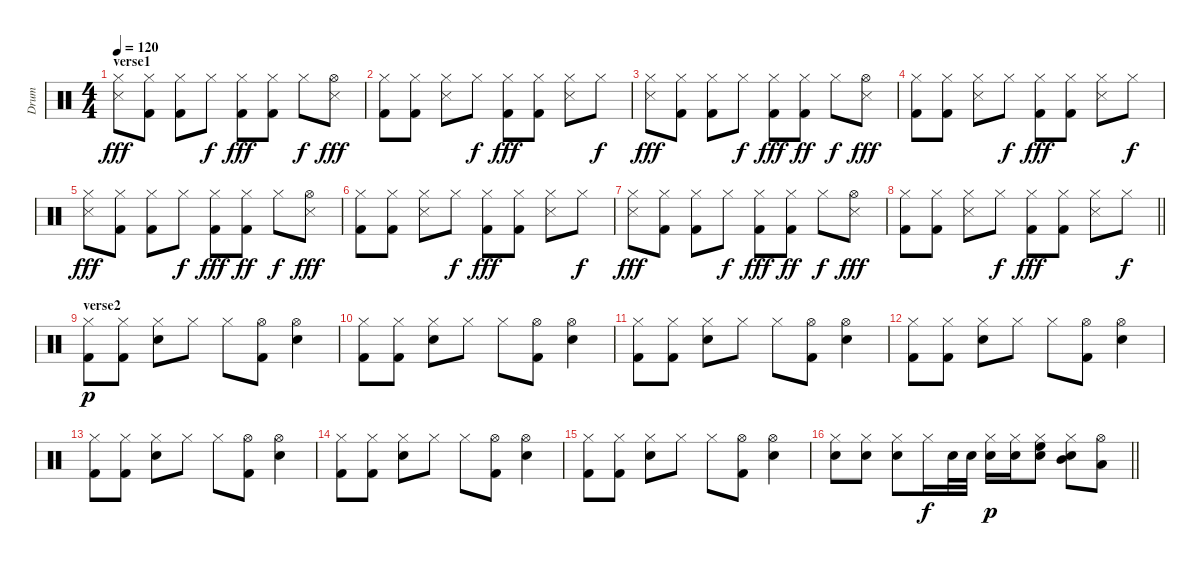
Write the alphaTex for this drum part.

\track ("Drum" "Drum") {instrument percussion}
\staff {score}
\articulation defaults
\ts (4 4)
\section ("" "verse1")
\tempo 120
\clef neutral
\ks c
("Snare (side stick) 3" "Hi-Hat (closed)").8{dy fff} ("Kick (hit) 2" "Hi-Hat (closed)").8 ("Kick (hit) 2" "Hi-Hat (closed)").8 "Hi-Hat (closed)".8{dy f} ("Hi-Hat (closed)" "Kick (hit) 2").8{dy fff} ("Kick (hit) 2" "Hi-Hat (closed)").8 "Hi-Hat (closed)".8{dy f} ("Hi-Hat (open)" "Snare (side stick) 3").8{dy fff} |
("Kick (hit) 2" "Hi-Hat (closed)").8 ("Kick (hit) 2" "Hi-Hat (closed)").8 ("Snare (side stick) 3" "Hi-Hat (closed)").8 "Hi-Hat (closed)".8{dy f} ("Kick (hit) 2" "Hi-Hat (closed)").8{dy fff} ("Kick (hit) 2" "Hi-Hat (closed)").8 ("Snare (side stick) 3" "Hi-Hat (closed)").8 "Hi-Hat (closed)".8{dy f} |
("Snare (side stick) 3" "Hi-Hat (closed)").8{dy fff} ("Kick (hit) 2" "Hi-Hat (closed)").8 ("Kick (hit) 2" "Hi-Hat (closed)").8 "Hi-Hat (closed)".8{dy f} ("Hi-Hat (closed)" "Kick (hit) 2").8{dy fff} ("Kick (hit) 2" "Hi-Hat (closed)").8{dy ff} "Hi-Hat (closed)".8{dy f} ("Snare (side stick) 3" "Hi-Hat (open)").8{dy fff} |
("Kick (hit) 2" "Hi-Hat (closed)").8 ("Kick (hit) 2" "Hi-Hat (closed)").8 ("Snare (side stick) 3" "Hi-Hat (closed)").8 "Hi-Hat (closed)".8{dy f} ("Kick (hit) 2" "Hi-Hat (closed)").8{dy fff} ("Kick (hit) 2" "Hi-Hat (closed)").8 ("Snare (side stick) 3" "Hi-Hat (closed)").8 "Hi-Hat (closed)".8{dy f} |
("Snare (side stick) 3" "Hi-Hat (closed)").8{dy fff} ("Kick (hit) 2" "Hi-Hat (closed)").8 ("Kick (hit) 2" "Hi-Hat (closed)").8 "Hi-Hat (closed)".8{dy f} ("Hi-Hat (closed)" "Kick (hit) 2").8{dy fff} ("Kick (hit) 2" "Hi-Hat (closed)").8{dy ff} "Hi-Hat (closed)".8{dy f} ("Hi-Hat (open)" "Snare (side stick) 3").8{dy fff} |
("Kick (hit) 2" "Hi-Hat (closed)").8 ("Kick (hit) 2" "Hi-Hat (closed)").8 ("Snare (side stick) 3" "Hi-Hat (closed)").8 "Hi-Hat (closed)".8{dy f} ("Kick (hit) 2" "Hi-Hat (closed)").8{dy fff} ("Kick (hit) 2" "Hi-Hat (closed)").8 ("Snare (side stick) 3" "Hi-Hat (closed)").8 "Hi-Hat (closed)".8{dy f} |
("Snare (side stick) 3" "Hi-Hat (closed)").8{dy fff} ("Kick (hit) 2" "Hi-Hat (closed)").8 ("Kick (hit) 2" "Hi-Hat (closed)").8 "Hi-Hat (closed)".8{dy f} ("Hi-Hat (closed)" "Kick (hit) 2").8{dy fff} ("Kick (hit) 2" "Hi-Hat (closed)").8{dy ff} "Hi-Hat (closed)".8{dy f} ("Hi-Hat (open)" "Snare (side stick) 3").8{dy fff} |
\barLineRight lightlight
("Kick (hit) 2" "Hi-Hat (closed)").8 ("Kick (hit) 2" "Hi-Hat (closed)").8 ("Snare (side stick) 3" "Hi-Hat (closed)").8 "Hi-Hat (closed)".8{dy f} ("Kick (hit) 2" "Hi-Hat (closed)").8{dy fff} ("Kick (hit) 2" "Hi-Hat (closed)").8 ("Snare (side stick) 3" "Hi-Hat (closed)").8 "Hi-Hat (closed)".8{dy f} |
\section ("" "verse2")
("Kick (hit) 2" "Hi-Hat (closed)").8{dy p} ("Kick (hit) 2" "Hi-Hat (closed)").8 ("Hi-Hat (closed)" "Snare (hit) 2").8 "Hi-Hat (closed)".8 "Hi-Hat (closed)".8 ("Kick (hit) 2" "Hi-Hat (open)").8 ("Snare (hit) 2" "Hi-Hat (open)").4 |
("Kick (hit) 2" "Hi-Hat (closed)").8 ("Kick (hit) 2" "Hi-Hat (closed)").8 ("Hi-Hat (closed)" "Snare (hit) 2").8 "Hi-Hat (closed)".8 "Hi-Hat (closed)".8 ("Kick (hit) 2" "Hi-Hat (open)").8 ("Snare (hit) 2" "Hi-Hat (open)").4 |
("Kick (hit) 2" "Hi-Hat (closed)").8 ("Kick (hit) 2" "Hi-Hat (closed)").8 ("Hi-Hat (closed)" "Snare (hit) 2").8 "Hi-Hat (closed)".8 "Hi-Hat (closed)".8 ("Kick (hit) 2" "Hi-Hat (open)").8 ("Snare (hit) 2" "Hi-Hat (open)").4 |
("Kick (hit) 2" "Hi-Hat (closed)").8 ("Kick (hit) 2" "Hi-Hat (closed)").8 ("Hi-Hat (closed)" "Snare (hit) 2").8 "Hi-Hat (closed)".8 "Hi-Hat (closed)".8 ("Kick (hit) 2" "Hi-Hat (open)").8 ("Snare (hit) 2" "Hi-Hat (open)").4 |
("Kick (hit) 2" "Hi-Hat (closed)").8 ("Kick (hit) 2" "Hi-Hat (closed)").8 ("Hi-Hat (closed)" "Snare (hit) 2").8 "Hi-Hat (closed)".8 "Hi-Hat (closed)".8 ("Kick (hit) 2" "Hi-Hat (open)").8 ("Snare (hit) 2" "Hi-Hat (open)").4 |
("Kick (hit) 2" "Hi-Hat (closed)").8 ("Kick (hit) 2" "Hi-Hat (closed)").8 ("Hi-Hat (closed)" "Snare (hit) 2").8 "Hi-Hat (closed)".8 "Hi-Hat (closed)".8 ("Kick (hit) 2" "Hi-Hat (open)").8 ("Snare (hit) 2" "Hi-Hat (open)").4 |
("Kick (hit) 2" "Hi-Hat (closed)").8 ("Kick (hit) 2" "Hi-Hat (closed)").8 ("Hi-Hat (closed)" "Snare (hit) 2").8 "Hi-Hat (closed)".8 "Hi-Hat (closed)".8 ("Kick (hit) 2" "Hi-Hat (open)").8 ("Snare (hit) 2" "Hi-Hat (open)").4 |
\barLineRight lightlight
("Hi-Hat (closed)" "Snare (hit) 2").8 ("Hi-Hat (closed)" "Snare (hit) 2").8 ("Hi-Hat (closed)" "Snare (hit) 2").8 "Hi-Hat (closed)".16{dy f} "Snare (hit) 2".32 "Snare (hit) 2".32 ("Hi-Hat (closed)" "Snare (hit) 2").16{dy p} ("Hi-Hat (closed)" "Snare (hit) 2").16 ("High Floor Tom (hit)" "Hi-Hat (closed)" "Snare (hit) 2").8 ("Mid Tom (hit)" "Hi-Hat (closed)" "Snare (hit) 2").8 ("Low Tom (hit)" "Hi-Hat (open)").8
